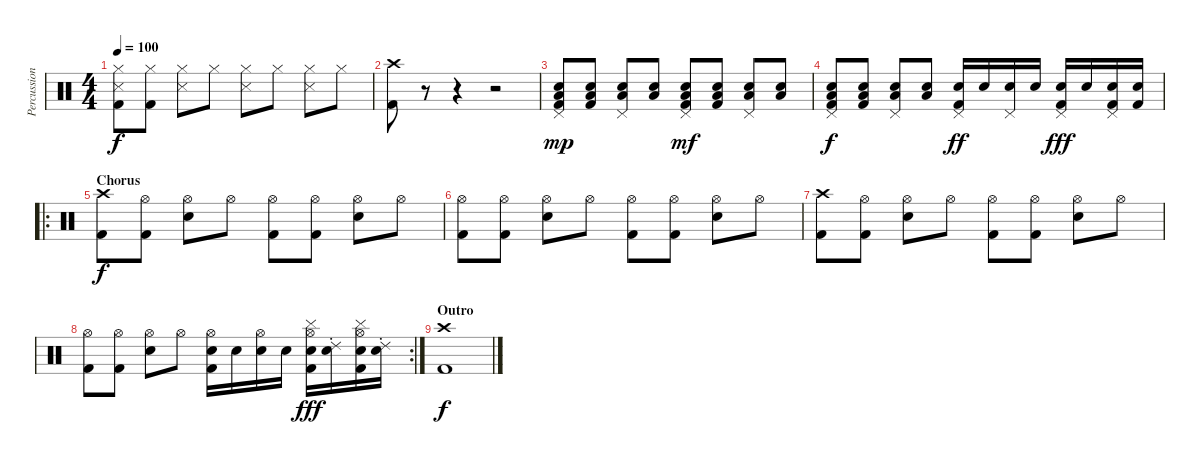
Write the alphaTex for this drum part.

\track ("Percussion" "Percussion") {instrument percussion}
\staff {score}
\articulation defaults
\ts (4 4)
\tempo 100
\clef neutral
\ks c
("Hi-Hat (closed)" "Snare (side stick) 3" "Kick (hit) 2").8{dy f} ("Hi-Hat (closed)" "Kick (hit) 2").8 ("Hi-Hat (closed)" "Snare (side stick) 3").8 "Hi-Hat (closed)".8 ("Hi-Hat (closed)" "Snare (side stick) 3").8 "Hi-Hat (closed)".8 ("Hi-Hat (closed)" "Snare (side stick) 3").8 "Hi-Hat (closed)".8 |
("Crash high (hit)" "Kick (hit) 2").8 r.8 r.4 r.2 |
("Pedal Hi-Hat (hit)" "Low Tom (hit)" "Electric Snare (hit)" "Kick (hit) 2").8{dy mp} ("Low Tom (hit)" "Electric Snare (hit)" "Kick (hit) 2").8 ("Pedal Hi-Hat (hit)" "Low Tom (hit)" "Electric Snare (hit)").8 ("Low Tom (hit)" "Electric Snare (hit)").8 ("Pedal Hi-Hat (hit)" "Low Tom (hit)" "Electric Snare (hit)" "Kick (hit) 2").8{dy mf} ("Low Tom (hit)" "Electric Snare (hit)" "Kick (hit) 2").8 ("Pedal Hi-Hat (hit)" "Low Tom (hit)" "Electric Snare (hit)").8 ("Low Tom (hit)" "Electric Snare (hit)").8 |
("Pedal Hi-Hat (hit)" "Low Tom (hit)" "Electric Snare (hit)" "Kick (hit) 2").8{dy f} ("Low Tom (hit)" "Electric Snare (hit)" "Kick (hit) 2").8 ("Pedal Hi-Hat (hit)" "Low Tom (hit)" "Electric Snare (hit)").8 ("Low Tom (hit)" "Electric Snare (hit)").8 ("Pedal Hi-Hat (hit)" "Electric Snare (hit)" "Kick (hit) 2").16{dy ff} "Electric Snare (hit)".16 ("Pedal Hi-Hat (hit)" "Electric Snare (hit)").16 "Electric Snare (hit)".16 ("Pedal Hi-Hat (hit)" "Electric Snare (hit)" "Kick (hit) 2").16{dy fff} "Electric Snare (hit)".16 ("Pedal Hi-Hat (hit)" "Electric Snare (hit)" "Kick (hit) 2").16 ("Electric Snare (hit)" "Kick (hit) 2").16 |
\ro
\section ("" "Chorus")
("Crash high (hit)" "Kick (hit) 2").8{dy f} ("Hi-Hat (open)" "Kick (hit) 2").8 ("Hi-Hat (open)" "Electric Snare (hit)").8 "Hi-Hat (open)".8 ("Hi-Hat (open)" "Kick (hit) 2").8 ("Hi-Hat (open)" "Kick (hit) 2").8 ("Hi-Hat (open)" "Electric Snare (hit)").8 "Hi-Hat (open)".8 |
("Hi-Hat (open)" "Kick (hit) 2").8 ("Hi-Hat (open)" "Kick (hit) 2").8 ("Hi-Hat (open)" "Electric Snare (hit)").8 "Hi-Hat (open)".8 ("Hi-Hat (open)" "Kick (hit) 2").8 ("Hi-Hat (open)" "Kick (hit) 2").8 ("Hi-Hat (open)" "Electric Snare (hit)").8 "Hi-Hat (open)".8 |
("Crash high (hit)" "Kick (hit) 2").8 ("Hi-Hat (open)" "Kick (hit) 2").8 ("Hi-Hat (open)" "Electric Snare (hit)").8 "Hi-Hat (open)".8 ("Hi-Hat (open)" "Kick (hit) 2").8 ("Hi-Hat (open)" "Kick (hit) 2").8 ("Hi-Hat (open)" "Electric Snare (hit)").8 "Hi-Hat (open)".8 |
\rc 2
("Hi-Hat (open)" "Kick (hit) 2").8 ("Hi-Hat (open)" "Kick (hit) 2").8 ("Hi-Hat (open)" "Electric Snare (hit)").8 "Hi-Hat (open)".8 ("Hi-Hat (open)" "Electric Snare (hit)" "Kick (hit) 2").16 "Electric Snare (hit)".16 ("Hi-Hat (open)" "Electric Snare (hit)").16 "Electric Snare (hit)".16 ("Hi-Hat (open)" "Electric Snare (hit)" "Kick (hit) 2" "Cymbal (hit)").16{dy fff} ("Electric Snare (hit)" "Ride (choke) 2").16 ("Hi-Hat (open)" "Electric Snare (hit)" "Kick (hit) 2" "Cymbal (hit)").16 ("Electric Snare (hit)" "Ride (choke) 2").16 |
\section ("" "Outro")
("Crash high (hit)" "Kick (hit) 2").1{dy f}
